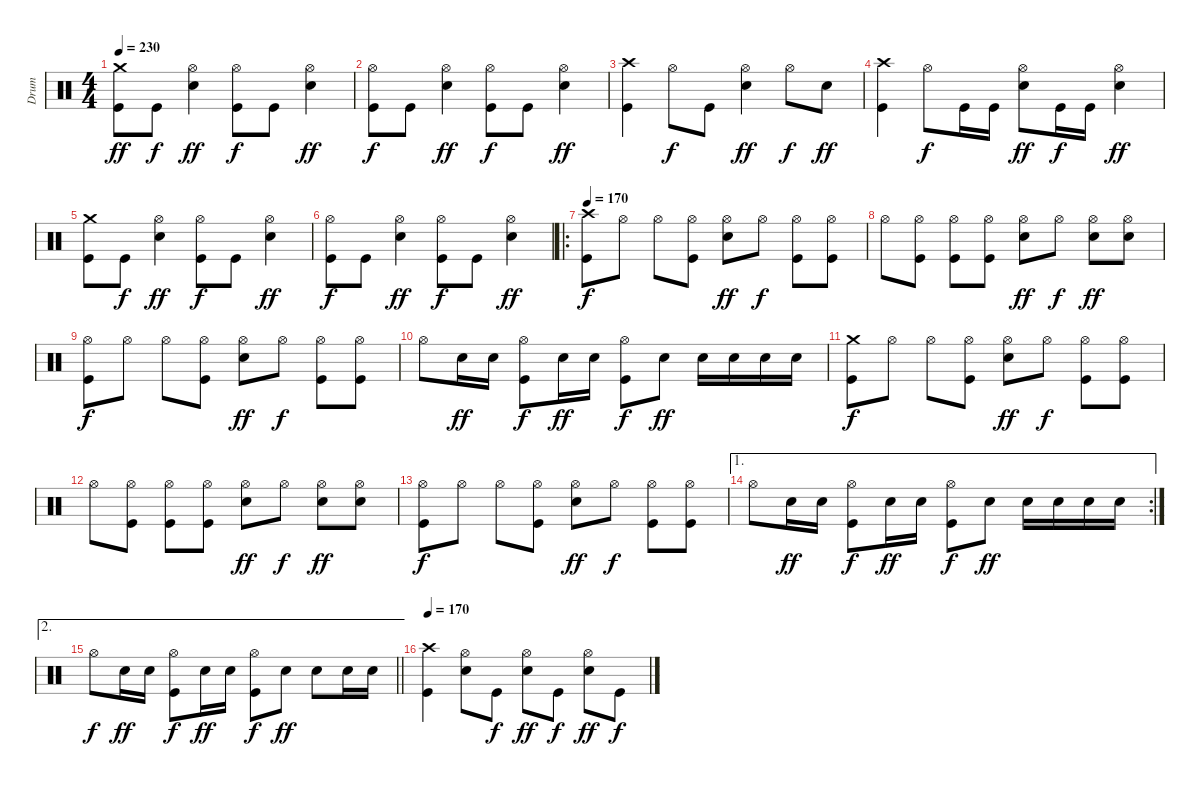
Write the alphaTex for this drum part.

\track ("Drum" "Drum") {instrument percussion}
\staff {score}
\articulation defaults
\ts (4 4)
\tempo 230
\clef neutral
\ks c
("Kick (hit)" "Crash medium (hit)").8{dy ff} "Kick (hit)".8{dy f} ("Electric Snare (hit)" "Hi-Hat (open)").4{dy ff} ("Kick (hit)" "Hi-Hat (open)").8{dy f} "Kick (hit)".8 ("Electric Snare (hit)" "Hi-Hat (open)").4{dy ff} |
("Kick (hit)" "Hi-Hat (open)").8{dy f} "Kick (hit)".8 ("Electric Snare (hit)" "Hi-Hat (open)").4{dy ff} ("Kick (hit)" "Hi-Hat (open)").8{dy f} "Kick (hit)".8 ("Electric Snare (hit)" "Hi-Hat (open)").4{dy ff} |
("Kick (hit)" "Crash high (hit)").4 "Hi-Hat (open)".8{dy f} "Kick (hit)".8 ("Electric Snare (hit)" "Hi-Hat (open)").4{dy ff} "Hi-Hat (open)".8{dy f} "Electric Snare (hit)".8{dy ff} |
("Kick (hit)" "Crash high (hit)").4 "Hi-Hat (open)".8{dy f} "Kick (hit)".16 "Kick (hit)".16 ("Electric Snare (hit)" "Hi-Hat (open)").8{dy ff} "Kick (hit)".16{dy f} "Kick (hit)".16 ("Electric Snare (hit)" "Hi-Hat (open)").4{dy ff} |
("Kick (hit)" "Crash medium (hit)").8 "Kick (hit)".8{dy f} ("Electric Snare (hit)" "Hi-Hat (open)").4{dy ff} ("Kick (hit)" "Hi-Hat (open)").8{dy f} "Kick (hit)".8 ("Electric Snare (hit)" "Hi-Hat (open)").4{dy ff} |
("Kick (hit)" "Hi-Hat (open)").8{dy f} "Kick (hit)".8 ("Electric Snare (hit)" "Hi-Hat (open)").4{dy ff} ("Kick (hit)" "Hi-Hat (open)").8{dy f} "Kick (hit)".8 ("Electric Snare (hit)" "Hi-Hat (open)").4{dy ff} |
\ro
\tempo 170
("Kick (hit)" "Crash high (hit)").8{dy f} "Hi-Hat (open)".8 "Hi-Hat (open)".8 ("Kick (hit)" "Hi-Hat (open)").8 ("Electric Snare (hit)" "Hi-Hat (open)").8{dy ff} "Hi-Hat (open)".8{dy f} ("Kick (hit)" "Hi-Hat (open)").8 ("Kick (hit)" "Hi-Hat (open)").8 |
"Hi-Hat (open)".8 ("Kick (hit)" "Hi-Hat (open)").8 ("Kick (hit)" "Hi-Hat (open)").8 ("Kick (hit)" "Hi-Hat (open)").8 ("Electric Snare (hit)" "Hi-Hat (open)").8{dy ff} "Hi-Hat (open)".8{dy f} ("Electric Snare (hit)" "Hi-Hat (open)").8{dy ff} ("Electric Snare (hit)" "Hi-Hat (open)").8 |
("Kick (hit)" "Hi-Hat (open)").8{dy f} "Hi-Hat (open)".8 "Hi-Hat (open)".8 ("Kick (hit)" "Hi-Hat (open)").8 ("Electric Snare (hit)" "Hi-Hat (open)").8{dy ff} "Hi-Hat (open)".8{dy f} ("Kick (hit)" "Hi-Hat (open)").8 ("Kick (hit)" "Hi-Hat (open)").8 |
"Hi-Hat (open)".8 "Electric Snare (hit)".16{dy ff} "Electric Snare (hit)".16 ("Kick (hit)" "Hi-Hat (open)").8{dy f} "Electric Snare (hit)".16{dy ff} "Electric Snare (hit)".16 ("Kick (hit)" "Hi-Hat (open)").8{dy f} "Electric Snare (hit)".8{dy ff} "Electric Snare (hit)".16 "Electric Snare (hit)".16 "Electric Snare (hit)".16 "Electric Snare (hit)".16 |
("Kick (hit)" "Crash medium (hit)").8{dy f} "Hi-Hat (open)".8 "Hi-Hat (open)".8 ("Kick (hit)" "Hi-Hat (open)").8 ("Electric Snare (hit)" "Hi-Hat (open)").8{dy ff} "Hi-Hat (open)".8{dy f} ("Kick (hit)" "Hi-Hat (open)").8 ("Kick (hit)" "Hi-Hat (open)").8 |
"Hi-Hat (open)".8 ("Kick (hit)" "Hi-Hat (open)").8 ("Kick (hit)" "Hi-Hat (open)").8 ("Kick (hit)" "Hi-Hat (open)").8 ("Electric Snare (hit)" "Hi-Hat (open)").8{dy ff} "Hi-Hat (open)".8{dy f} ("Electric Snare (hit)" "Hi-Hat (open)").8{dy ff} ("Electric Snare (hit)" "Hi-Hat (open)").8 |
("Kick (hit)" "Hi-Hat (open)").8{dy f} "Hi-Hat (open)".8 "Hi-Hat (open)".8 ("Kick (hit)" "Hi-Hat (open)").8 ("Electric Snare (hit)" "Hi-Hat (open)").8{dy ff} "Hi-Hat (open)".8{dy f} ("Kick (hit)" "Hi-Hat (open)").8 ("Kick (hit)" "Hi-Hat (open)").8 |
\ae 1
\rc 2 "Hi-Hat (open)".8 "Electric Snare (hit)".16{dy ff} "Electric Snare (hit)".16
("Kick (hit)" "Hi-Hat (open)").8{dy f} "Electric Snare (hit)".16{dy ff} "Electric Snare (hit)".16 ("Kick (hit)" "Hi-Hat (open)").8{dy f} "Electric Snare (hit)".8{dy ff} "Electric Snare (hit)".16 "Electric Snare (hit)".16 "Electric Snare (hit)".16 "Electric Snare (hit)".16 |
\ae 2
\barLineRight lightlight "Hi-Hat (open)".8{dy f} "Electric Snare (hit)".16{dy ff} "Electric Snare (hit)".16
("Kick (hit)" "Hi-Hat (open)").8{dy f} "Electric Snare (hit)".16{dy ff} "Electric Snare (hit)".16 ("Kick (hit)" "Hi-Hat (open)").8{dy f} "Electric Snare (hit)".8{dy ff} "Electric Snare (hit)".8 "Electric Snare (hit)".16 "Electric Snare (hit)".16 |
\tempo 170
("Kick (hit)" "Crash high (hit)").4 ("Electric Snare (hit)" "Hi-Hat (open)").8 "Kick (hit)".8{dy f} ("Electric Snare (hit)" "Hi-Hat (open)").8{dy ff} "Kick (hit)".8{dy f} ("Electric Snare (hit)" "Hi-Hat (open)").8{dy ff} "Kick (hit)".8{dy f}
